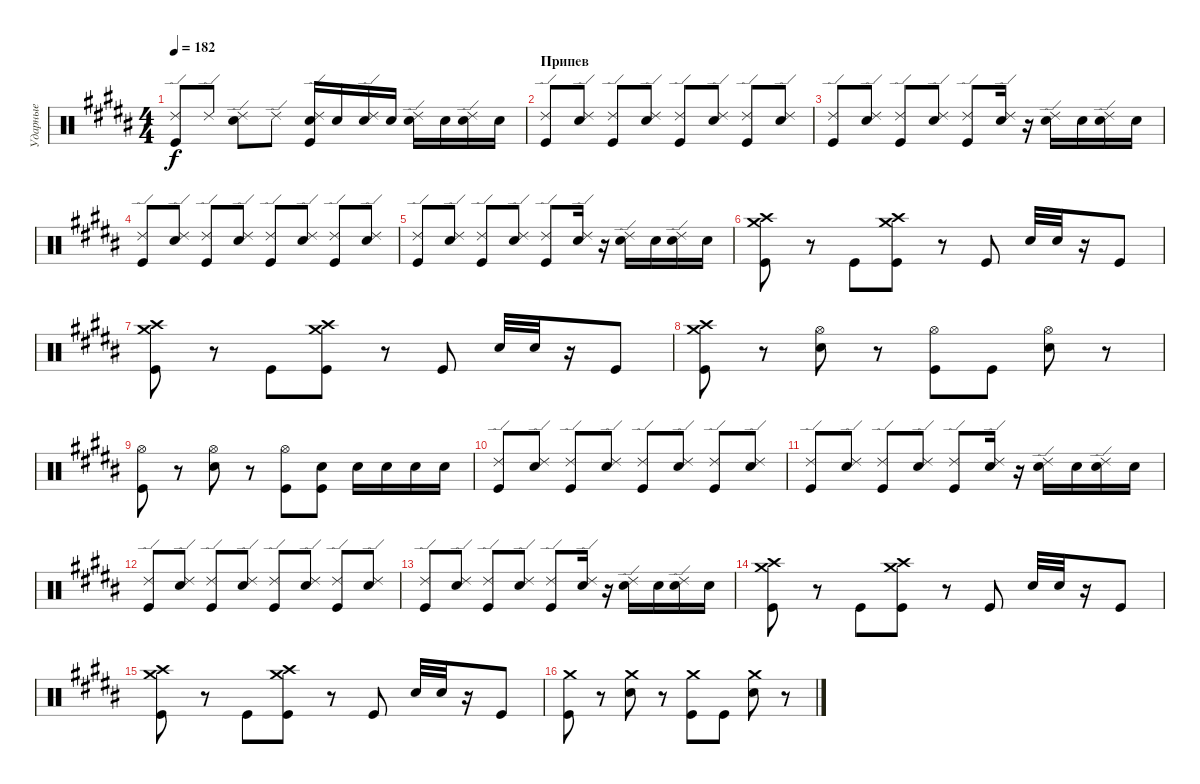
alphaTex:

\track ("Ударные" "Ударные") {instrument percussion}
\staff {score}
\articulation defaults
\ts (4 4)
\tempo 182
\clef neutral
\ks b
("Kick (hit)" "Ride (edge) 2").8{dy f} "Ride (edge) 2".8 ("Electric Snare (hit)" "Ride (edge) 2").8 "Ride (edge) 2".8 ("Electric Snare (hit)" "Kick (hit)" "Ride (edge) 2").16 "Electric Snare (hit)".16 ("Electric Snare (hit)" "Ride (edge) 2").16 "Electric Snare (hit)".16 ("Electric Snare (hit)" "Ride (edge) 2").16 "Electric Snare (hit)".16 ("Electric Snare (hit)" "Ride (edge) 2").16 "Electric Snare (hit)".16 |
\section ("" "Припев")
("Kick (hit)" "Ride (edge) 2").8 ("Electric Snare (hit)" "Ride (edge) 2").8 ("Kick (hit)" "Ride (edge) 2").8 ("Electric Snare (hit)" "Ride (edge) 2").8 ("Kick (hit)" "Ride (edge) 2").8 ("Electric Snare (hit)" "Ride (edge) 2").8 ("Kick (hit)" "Ride (edge) 2").8 ("Electric Snare (hit)" "Ride (edge) 2").8 |
("Ride (edge) 2" "Kick (hit)").8 ("Ride (edge) 2" "Electric Snare (hit)").8 ("Ride (edge) 2" "Kick (hit)").8 ("Ride (edge) 2" "Electric Snare (hit)").8 ("Ride (edge) 2" "Kick (hit)").8 ("Ride (edge) 2" "Electric Snare (hit)").16 r.16 ("Ride (edge) 2" "Electric Snare (hit)").16 "Electric Snare (hit)".16 ("Ride (edge) 2" "Electric Snare (hit)").16 "Electric Snare (hit)".16 |
("Kick (hit)" "Ride (edge) 2").8 ("Electric Snare (hit)" "Ride (edge) 2").8 ("Kick (hit)" "Ride (edge) 2").8 ("Electric Snare (hit)" "Ride (edge) 2").8 ("Kick (hit)" "Ride (edge) 2").8 ("Electric Snare (hit)" "Ride (edge) 2").8 ("Kick (hit)" "Ride (edge) 2").8 ("Electric Snare (hit)" "Ride (edge) 2").8 |
("Ride (edge) 2" "Kick (hit)").8 ("Ride (edge) 2" "Electric Snare (hit)").8 ("Ride (edge) 2" "Kick (hit)").8 ("Ride (edge) 2" "Electric Snare (hit)").8 ("Ride (edge) 2" "Kick (hit)").8 ("Ride (edge) 2" "Electric Snare (hit)").16 r.16 ("Ride (edge) 2" "Electric Snare (hit)").16 "Electric Snare (hit)".16 ("Ride (edge) 2" "Electric Snare (hit)").16 "Electric Snare (hit)".16 |
("Kick (hit)" "Crash medium (hit)" "Crash high (hit)").8 r.8 "Kick (hit)".8 ("Kick (hit)" "Crash medium (hit)" "Crash high (hit)").8 r.8 "Kick (hit)".8 "Electric Snare (hit)".32 "Electric Snare (hit)".32 r.16 "Kick (hit)".8 |
("Kick (hit)" "Crash high (hit)" "Crash medium (hit)").8 r.8 "Kick (hit)".8 ("Kick (hit)" "Crash high (hit)" "Crash medium (hit)").8 r.8 "Kick (hit)".8 "Electric Snare (hit)".32 "Electric Snare (hit)".32 r.16 "Kick (hit)".8 |
("Crash medium (hit)" "Crash high (hit)" "Kick (hit)").8 r.8 ("Electric Snare (hit)" "Hi-Hat (open)").8 r.8 ("Kick (hit)" "Hi-Hat (open)").8 "Kick (hit)".8 ("Electric Snare (hit)" "Hi-Hat (open)").8 r.8 |
("Hi-Hat (open)" "Kick (hit)").8 r.8 ("Hi-Hat (open)" "Electric Snare (hit)").8 r.8 ("Kick (hit)" "Hi-Hat (open)").8 ("Electric Snare (hit)" "Kick (hit)").8 "Electric Snare (hit)".16 "Electric Snare (hit)".16 "Electric Snare (hit)".16 "Electric Snare (hit)".16 |
("Kick (hit)" "Ride (edge) 2").8 ("Electric Snare (hit)" "Ride (edge) 2").8 ("Kick (hit)" "Ride (edge) 2").8 ("Electric Snare (hit)" "Ride (edge) 2").8 ("Kick (hit)" "Ride (edge) 2").8 ("Electric Snare (hit)" "Ride (edge) 2").8 ("Kick (hit)" "Ride (edge) 2").8 ("Electric Snare (hit)" "Ride (edge) 2").8 |
("Ride (edge) 2" "Kick (hit)").8 ("Ride (edge) 2" "Electric Snare (hit)").8 ("Ride (edge) 2" "Kick (hit)").8 ("Ride (edge) 2" "Electric Snare (hit)").8 ("Ride (edge) 2" "Kick (hit)").8 ("Ride (edge) 2" "Electric Snare (hit)").16 r.16 ("Ride (edge) 2" "Electric Snare (hit)").16 "Electric Snare (hit)".16 ("Ride (edge) 2" "Electric Snare (hit)").16 "Electric Snare (hit)".16 |
("Kick (hit)" "Ride (edge) 2").8 ("Electric Snare (hit)" "Ride (edge) 2").8 ("Kick (hit)" "Ride (edge) 2").8 ("Electric Snare (hit)" "Ride (edge) 2").8 ("Kick (hit)" "Ride (edge) 2").8 ("Electric Snare (hit)" "Ride (edge) 2").8 ("Kick (hit)" "Ride (edge) 2").8 ("Electric Snare (hit)" "Ride (edge) 2").8 |
("Ride (edge) 2" "Kick (hit)").8 ("Ride (edge) 2" "Electric Snare (hit)").8 ("Ride (edge) 2" "Kick (hit)").8 ("Ride (edge) 2" "Electric Snare (hit)").8 ("Ride (edge) 2" "Kick (hit)").8 ("Ride (edge) 2" "Electric Snare (hit)").16 r.16 ("Ride (edge) 2" "Electric Snare (hit)").16 "Electric Snare (hit)".16 ("Ride (edge) 2" "Electric Snare (hit)").16 "Electric Snare (hit)".16 |
("Kick (hit)" "Crash medium (hit)" "Crash high (hit)").8 r.8 "Kick (hit)".8 ("Kick (hit)" "Crash medium (hit)" "Crash high (hit)").8 r.8 "Kick (hit)".8 "Electric Snare (hit)".32 "Electric Snare (hit)".32 r.16 "Kick (hit)".8 |
("Kick (hit)" "Crash high (hit)" "Crash medium (hit)").8 r.8 "Kick (hit)".8 ("Kick (hit)" "Crash high (hit)" "Crash medium (hit)").8 r.8 "Kick (hit)".8 "Electric Snare (hit)".32 "Electric Snare (hit)".32 r.16 "Kick (hit)".8 |
("Crash medium (hit)" "Kick (hit)").8 r.8 ("Crash medium (hit)" "Electric Snare (hit)").8 r.8 ("Crash medium (hit)" "Kick (hit)").8 "Kick (hit)".8 ("Crash medium (hit)" "Electric Snare (hit)").8 r.8
